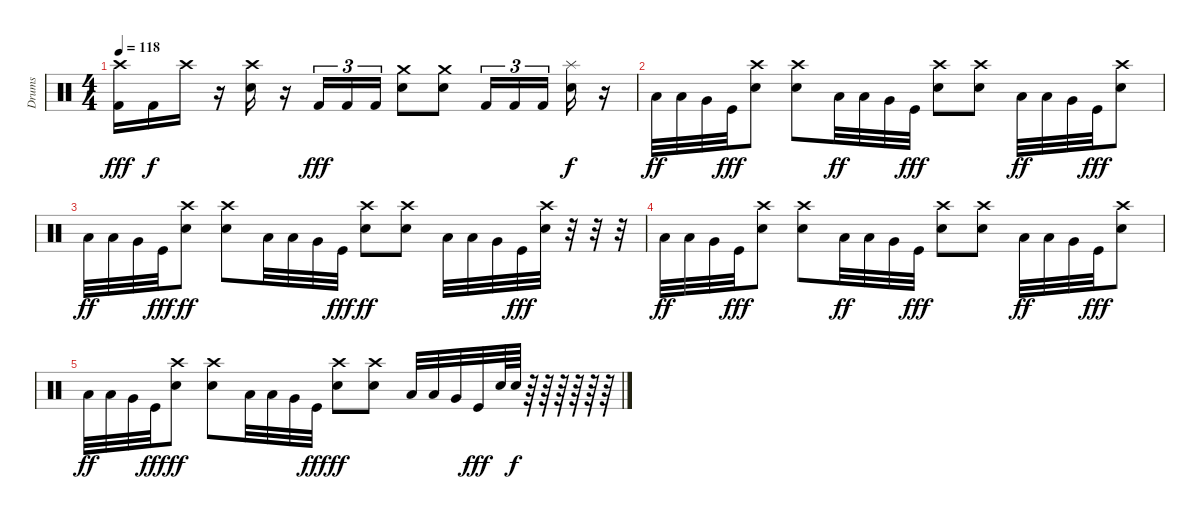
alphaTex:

\track ("Drums" "Drums") {instrument percussion}
\staff {score}
\articulation defaults
\ts (4 4)
\tempo 118
\clef neutral
\ks c
("Crash high (hit)" "Kick (hit) 2").16{dy fff} "Kick (hit) 2".16{dy f} "Crash high (hit)".16 r.16 ("Crash high (hit)" "Electric Snare (hit)").16 r.16 "Kick (hit) 2".16{tu (3 2) dy fff} "Kick (hit) 2".16{tu (3 2)} "Kick (hit) 2".16{tu (3 2)} ("Crash medium (hit)" "Electric Snare (hit)").8 ("Crash medium (hit)" "Electric Snare (hit)").8 "Kick (hit) 2".16{tu (3 2)} "Kick (hit) 2".16{tu (3 2)} "Kick (hit) 2".16{tu (3 2)} ("Splash (hit)" "Electric Snare (hit)").16{dy f} r.16 |
"Low Floor Tom (hit)".32{dy ff} "Low Tom (hit)".32 "Very Low Tom (hit)".32 "Kick (hit)".32{dy fff} ("Electric Snare (hit)" "Crash high (hit)").8 ("Electric Snare (hit)" "Crash high (hit)").8 "Low Floor Tom (hit)".32{dy ff} "Low Tom (hit)".32 "Very Low Tom (hit)".32 "Kick (hit)".32{dy fff} ("Electric Snare (hit)" "Crash high (hit)").8 ("Electric Snare (hit)" "Crash high (hit)").8 "Low Floor Tom (hit)".32{dy ff} "Low Tom (hit)".32 "Very Low Tom (hit)".32 "Kick (hit)".32{dy fff} ("Electric Snare (hit)" "Crash high (hit)").8 |
"Low Floor Tom (hit)".32{dy ff} "Low Tom (hit)".32 "Very Low Tom (hit)".32 "Kick (hit)".32{dy fff} ("Electric Snare (hit)" "Crash high (hit)").8{dy ff} ("Electric Snare (hit)" "Crash high (hit)").8 "Low Floor Tom (hit)".32 "Low Tom (hit)".32 "Very Low Tom (hit)".32 "Kick (hit)".32{dy fff} ("Electric Snare (hit)" "Crash high (hit)").8{dy ff} ("Electric Snare (hit)" "Crash high (hit)").8 "Low Floor Tom (hit)".32 "Low Tom (hit)".32 "Very Low Tom (hit)".32 "Kick (hit)".32{dy fff} ("Electric Snare (hit)" "Crash high (hit)").32 r.32 r.32 r.32 |
"Low Floor Tom (hit)".32{dy ff} "Low Tom (hit)".32 "Very Low Tom (hit)".32 "Kick (hit)".32{dy fff} ("Electric Snare (hit)" "Crash high (hit)").8 ("Electric Snare (hit)" "Crash high (hit)").8 "Low Floor Tom (hit)".32{dy ff} "Low Tom (hit)".32 "Very Low Tom (hit)".32 "Kick (hit)".32{dy fff} ("Electric Snare (hit)" "Crash high (hit)").8 ("Electric Snare (hit)" "Crash high (hit)").8 "Low Floor Tom (hit)".32{dy ff} "Low Tom (hit)".32 "Very Low Tom (hit)".32 "Kick (hit)".32{dy fff} ("Electric Snare (hit)" "Crash high (hit)").8 |
"Low Floor Tom (hit)".32{dy ff} "Low Tom (hit)".32 "Very Low Tom (hit)".32 "Kick (hit)".32{dy fff} ("Electric Snare (hit)" "Crash high (hit)").8{dy ff} ("Electric Snare (hit)" "Crash high (hit)").8 "Low Floor Tom (hit)".32 "Low Tom (hit)".32 "Very Low Tom (hit)".32 "Kick (hit)".32{dy fff} ("Electric Snare (hit)" "Crash high (hit)").8{dy ff} ("Electric Snare (hit)" "Crash high (hit)").8 "Low Floor Tom (hit)".32 "Low Tom (hit)".32 "Very Low Tom (hit)".32 "Kick (hit)".32{dy fff} "Electric Snare (hit)".64 "Electric Snare (hit)".64{dy f} r.64 r.64 r.64 r.64 r.64 r.64
